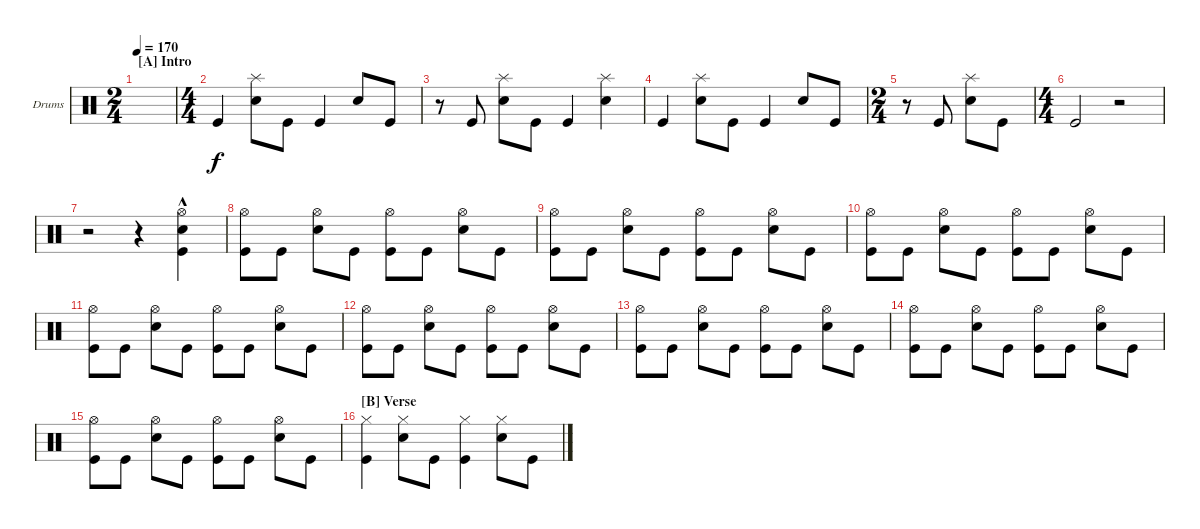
\defaultSystemsLayout 4
\bracketExtendMode groupsimilarinstruments
\firstSystemTrackNameOrientation horizontal
\otherSystemsTrackNameOrientation horizontal
\track ("Benny Horowitz" "Drums") {instrument percussion}
\staff {score}
\articulation defaults
\ts (2 4)
\section ("A" "Intro")
\tempo 170
\clef neutral
\scale
0.391473
\ks c
|
\ts (4 4)
\scale
0.391473 "Kick (hit)".4 ("Splash (hit)" "Snare (hit) 2").8 "Kick (hit)".8 "Kick (hit)".4 "Snare (hit) 2".8 "Kick (hit)".8 |
\scale
0.217054 r.8 "Kick (hit)".8 ("Splash (hit)" "Snare (hit) 2").8 "Kick (hit)".8 "Kick (hit)".4 ("Splash (hit)" "Snare (hit) 2").4 |
"Kick (hit)".4 ("Splash (hit)" "Snare (hit) 2").8 "Kick (hit)".8 "Kick (hit)".4 "Snare (hit) 2".8 "Kick (hit)".8 |
\ts (2 4)
r.8 "Kick (hit)".8 ("Splash (hit)" "Snare (hit) 2").8 "Kick (hit)".8 |
\ts (4 4)
"Kick (hit)".2 r.2 |
r.2 r.4 ("Snare (hit) 2"{hac} "Kick (hit)"{hac} "Hi-Hat (open)").4 |
("Kick (hit)" "Hi-Hat (open)").8 "Kick (hit)".8 ("Snare (hit) 2" "Hi-Hat (open)").8 "Kick (hit)".8 ("Kick (hit)" "Hi-Hat (open)").8 "Kick (hit)".8 ("Snare (hit) 2" "Hi-Hat (open)").8 "Kick (hit)".8 |
("Kick (hit)" "Hi-Hat (open)").8 "Kick (hit)".8 ("Snare (hit) 2" "Hi-Hat (open)").8 "Kick (hit)".8 ("Kick (hit)" "Hi-Hat (open)").8 "Kick (hit)".8 ("Snare (hit) 2" "Hi-Hat (open)").8 "Kick (hit)".8 |
("Kick (hit)" "Hi-Hat (open)").8 "Kick (hit)".8 ("Snare (hit) 2" "Hi-Hat (open)").8 "Kick (hit)".8 ("Kick (hit)" "Hi-Hat (open)").8 "Kick (hit)".8 ("Snare (hit) 2" "Hi-Hat (open)").8 "Kick (hit)".8 |
("Kick (hit)" "Hi-Hat (open)").8 "Kick (hit)".8 ("Snare (hit) 2" "Hi-Hat (open)").8 "Kick (hit)".8 ("Kick (hit)" "Hi-Hat (open)").8 "Kick (hit)".8 ("Snare (hit) 2" "Hi-Hat (open)").8 "Kick (hit)".8 |
("Kick (hit)" "Hi-Hat (open)").8 "Kick (hit)".8 ("Snare (hit) 2" "Hi-Hat (open)").8 "Kick (hit)".8 ("Kick (hit)" "Hi-Hat (open)").8 "Kick (hit)".8 ("Snare (hit) 2" "Hi-Hat (open)").8 "Kick (hit)".8 |
("Kick (hit)" "Hi-Hat (open)").8 "Kick (hit)".8 ("Snare (hit) 2" "Hi-Hat (open)").8 "Kick (hit)".8 ("Kick (hit)" "Hi-Hat (open)").8 "Kick (hit)".8 ("Snare (hit) 2" "Hi-Hat (open)").8 "Kick (hit)".8 |
("Kick (hit)" "Hi-Hat (open)").8 "Kick (hit)".8 ("Snare (hit) 2" "Hi-Hat (open)").8 "Kick (hit)".8 ("Kick (hit)" "Hi-Hat (open)").8 "Kick (hit)".8 ("Snare (hit) 2" "Hi-Hat (open)").8 "Kick (hit)".8 |
("Kick (hit)" "Hi-Hat (open)").8 "Kick (hit)".8 ("Snare (hit) 2" "Hi-Hat (open)").8 "Kick (hit)".8 ("Kick (hit)" "Hi-Hat (open)").8 "Kick (hit)".8 ("Snare (hit) 2" "Hi-Hat (open)").8 "Kick (hit)".8 |
\section ("B" "Verse")
("Kick (hit)" "Hi-Hat (closed)").4{dy f} ("Snare (hit) 2" "Hi-Hat (closed)").8 "Kick (hit)".8 ("Kick (hit)" "Hi-Hat (closed)").4 ("Snare (hit) 2" "Hi-Hat (closed)").8 "Kick (hit)".8
